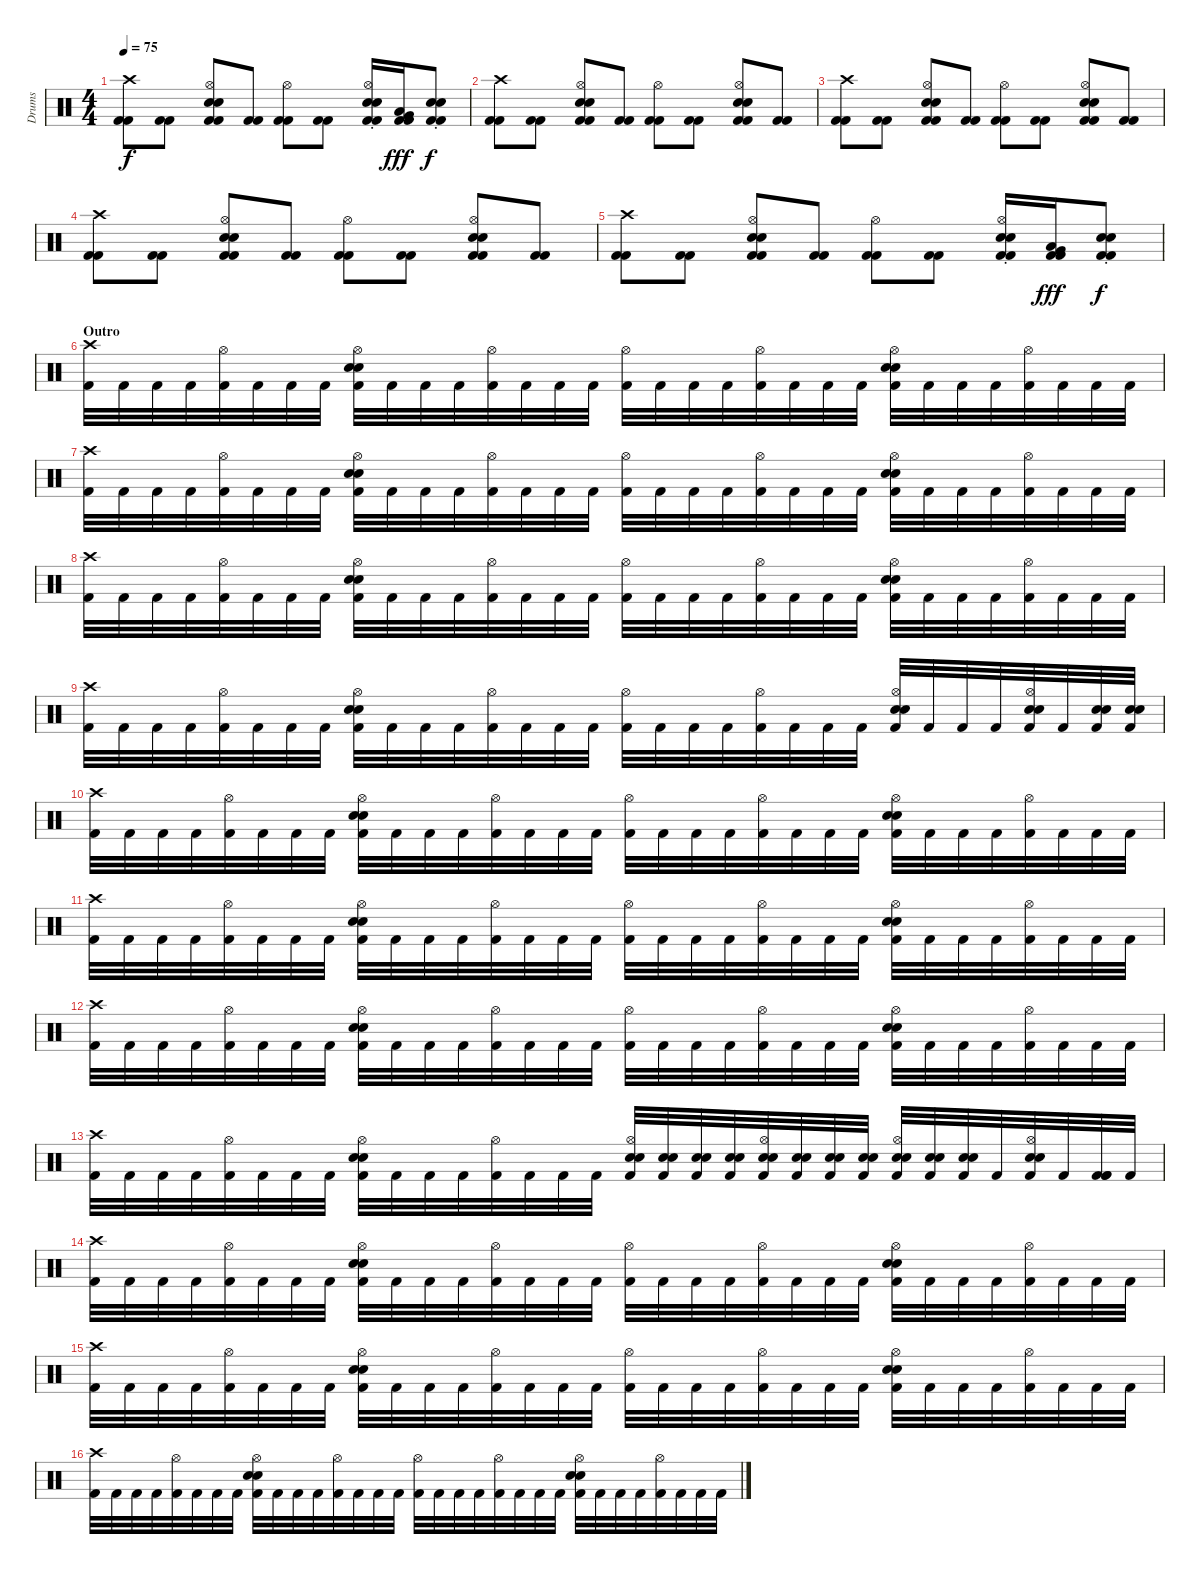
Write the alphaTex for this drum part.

\track ("Drums" "Drums") {instrument percussion}
\staff {score}
\articulation defaults
\ts (4 4)
\tempo 75
\clef neutral
\ks c
("Crash high (hit)" "Kick (hit) 2" "Kick (hit) 2").8{dy f} ("Kick (hit) 2" "Kick (hit) 2").8 ("Hi-Hat (open)" "Snare (hit) 2" "Snare (hit) 2" "Kick (hit) 2" "Kick (hit) 2").8 ("Kick (hit) 2" "Kick (hit) 2").8 ("Hi-Hat (open)" "Kick (hit) 2" "Kick (hit) 2").8 ("Kick (hit) 2" "Kick (hit) 2").8 ("Hi-Hat (open)"{st} "Snare (hit) 2"{st} "Snare (hit) 2"{st} "Kick (hit) 2"{st} "Kick (hit) 2"{st}).16 ("Low Floor Tom (hit)" "Very Low Tom (hit)" "Kick (hit) 2" "Kick (hit) 2").16{dy fff} ("Snare (hit) 2"{st} "Snare (hit) 2"{st} "Kick (hit) 2"{st} "Kick (hit) 2"{st}).8{dy f} |
("Crash high (hit)" "Kick (hit) 2" "Kick (hit) 2").8 ("Kick (hit) 2" "Kick (hit) 2").8 ("Hi-Hat (open)" "Snare (hit) 2" "Snare (hit) 2" "Kick (hit) 2" "Kick (hit) 2").8 ("Kick (hit) 2" "Kick (hit) 2").8 ("Hi-Hat (open)" "Kick (hit) 2" "Kick (hit) 2").8 ("Kick (hit) 2" "Kick (hit) 2").8 ("Hi-Hat (open)" "Snare (hit) 2" "Snare (hit) 2" "Kick (hit) 2" "Kick (hit) 2").8 ("Kick (hit) 2" "Kick (hit) 2").8 |
("Crash high (hit)" "Kick (hit) 2" "Kick (hit) 2").8 ("Kick (hit) 2" "Kick (hit) 2").8 ("Hi-Hat (open)" "Snare (hit) 2" "Snare (hit) 2" "Kick (hit) 2" "Kick (hit) 2").8 ("Kick (hit) 2" "Kick (hit) 2").8 ("Hi-Hat (open)" "Kick (hit) 2" "Kick (hit) 2").8 ("Kick (hit) 2" "Kick (hit) 2").8 ("Hi-Hat (open)" "Snare (hit) 2" "Snare (hit) 2" "Kick (hit) 2" "Kick (hit) 2").8 ("Kick (hit) 2" "Kick (hit) 2").8 |
("Crash high (hit)" "Kick (hit) 2" "Kick (hit) 2").8 ("Kick (hit) 2" "Kick (hit) 2").8 ("Hi-Hat (open)" "Snare (hit) 2" "Snare (hit) 2" "Kick (hit) 2" "Kick (hit) 2").8 ("Kick (hit) 2" "Kick (hit) 2").8 ("Hi-Hat (open)" "Kick (hit) 2" "Kick (hit) 2").8 ("Kick (hit) 2" "Kick (hit) 2").8 ("Hi-Hat (open)" "Snare (hit) 2" "Snare (hit) 2" "Kick (hit) 2" "Kick (hit) 2").8 ("Kick (hit) 2" "Kick (hit) 2").8 |
("Crash high (hit)" "Kick (hit) 2" "Kick (hit) 2").8 ("Kick (hit) 2" "Kick (hit) 2").8 ("Hi-Hat (open)" "Snare (hit) 2" "Snare (hit) 2" "Kick (hit) 2" "Kick (hit) 2").8 ("Kick (hit) 2" "Kick (hit) 2").8 ("Hi-Hat (open)" "Kick (hit) 2" "Kick (hit) 2").8 ("Kick (hit) 2" "Kick (hit) 2").8 ("Hi-Hat (open)"{st} "Snare (hit) 2"{st} "Snare (hit) 2"{st} "Kick (hit) 2"{st} "Kick (hit) 2"{st}).16 ("Low Floor Tom (hit)" "Very Low Tom (hit)" "Kick (hit) 2" "Kick (hit) 2").16{dy fff} ("Snare (hit) 2"{st} "Snare (hit) 2"{st} "Kick (hit) 2"{st} "Kick (hit) 2"{st}).8{dy f} |
\section ("" "Outro")
("Crash high (hit)" "Kick (hit) 2").32 "Kick (hit) 2".32 "Kick (hit) 2".32 "Kick (hit) 2".32 ("Hi-Hat (open)" "Kick (hit) 2").32 "Kick (hit) 2".32 "Kick (hit) 2".32 "Kick (hit) 2".32 ("Hi-Hat (open)" "Snare (hit) 2" "Snare (hit) 2" "Kick (hit) 2").32 "Kick (hit) 2".32 "Kick (hit) 2".32 "Kick (hit) 2".32 ("Hi-Hat (open)" "Kick (hit) 2").32 "Kick (hit) 2".32 "Kick (hit) 2".32 "Kick (hit) 2".32 ("Hi-Hat (open)" "Kick (hit) 2").32 "Kick (hit) 2".32 "Kick (hit) 2".32 "Kick (hit) 2".32 ("Hi-Hat (open)" "Kick (hit) 2").32 "Kick (hit) 2".32 "Kick (hit) 2".32 "Kick (hit) 2".32 ("Hi-Hat (open)" "Snare (hit) 2" "Snare (hit) 2" "Kick (hit) 2").32 "Kick (hit) 2".32 "Kick (hit) 2".32 "Kick (hit) 2".32 ("Hi-Hat (open)" "Kick (hit) 2").32 "Kick (hit) 2".32 "Kick (hit) 2".32 "Kick (hit) 2".32 |
("Crash high (hit)" "Kick (hit) 2").32 "Kick (hit) 2".32 "Kick (hit) 2".32 "Kick (hit) 2".32 ("Hi-Hat (open)" "Kick (hit) 2").32 "Kick (hit) 2".32 "Kick (hit) 2".32 "Kick (hit) 2".32 ("Hi-Hat (open)" "Snare (hit) 2" "Snare (hit) 2" "Kick (hit) 2").32 "Kick (hit) 2".32 "Kick (hit) 2".32 "Kick (hit) 2".32 ("Hi-Hat (open)" "Kick (hit) 2").32 "Kick (hit) 2".32 "Kick (hit) 2".32 "Kick (hit) 2".32 ("Hi-Hat (open)" "Kick (hit) 2").32 "Kick (hit) 2".32 "Kick (hit) 2".32 "Kick (hit) 2".32 ("Hi-Hat (open)" "Kick (hit) 2").32 "Kick (hit) 2".32 "Kick (hit) 2".32 "Kick (hit) 2".32 ("Hi-Hat (open)" "Snare (hit) 2" "Snare (hit) 2" "Kick (hit) 2").32 "Kick (hit) 2".32 "Kick (hit) 2".32 "Kick (hit) 2".32 ("Hi-Hat (open)" "Kick (hit) 2").32 "Kick (hit) 2".32 "Kick (hit) 2".32 "Kick (hit) 2".32 |
("Crash high (hit)" "Kick (hit) 2").32 "Kick (hit) 2".32 "Kick (hit) 2".32 "Kick (hit) 2".32 ("Hi-Hat (open)" "Kick (hit) 2").32 "Kick (hit) 2".32 "Kick (hit) 2".32 "Kick (hit) 2".32 ("Hi-Hat (open)" "Snare (hit) 2" "Snare (hit) 2" "Kick (hit) 2").32 "Kick (hit) 2".32 "Kick (hit) 2".32 "Kick (hit) 2".32 ("Hi-Hat (open)" "Kick (hit) 2").32 "Kick (hit) 2".32 "Kick (hit) 2".32 "Kick (hit) 2".32 ("Hi-Hat (open)" "Kick (hit) 2").32 "Kick (hit) 2".32 "Kick (hit) 2".32 "Kick (hit) 2".32 ("Hi-Hat (open)" "Kick (hit) 2").32 "Kick (hit) 2".32 "Kick (hit) 2".32 "Kick (hit) 2".32 ("Hi-Hat (open)" "Snare (hit) 2" "Snare (hit) 2" "Kick (hit) 2").32 "Kick (hit) 2".32 "Kick (hit) 2".32 "Kick (hit) 2".32 ("Hi-Hat (open)" "Kick (hit) 2").32 "Kick (hit) 2".32 "Kick (hit) 2".32 "Kick (hit) 2".32 |
("Crash high (hit)" "Kick (hit) 2").32 "Kick (hit) 2".32 "Kick (hit) 2".32 "Kick (hit) 2".32 ("Hi-Hat (open)" "Kick (hit) 2").32 "Kick (hit) 2".32 "Kick (hit) 2".32 "Kick (hit) 2".32 ("Hi-Hat (open)" "Snare (hit) 2" "Snare (hit) 2" "Kick (hit) 2").32 "Kick (hit) 2".32 "Kick (hit) 2".32 "Kick (hit) 2".32 ("Hi-Hat (open)" "Kick (hit) 2").32 "Kick (hit) 2".32 "Kick (hit) 2".32 "Kick (hit) 2".32 ("Hi-Hat (open)" "Kick (hit) 2").32 "Kick (hit) 2".32 "Kick (hit) 2".32 "Kick (hit) 2".32 ("Hi-Hat (open)" "Kick (hit) 2").32 "Kick (hit) 2".32 "Kick (hit) 2".32 "Kick (hit) 2".32 ("Hi-Hat (open)" "Snare (hit) 2" "Snare (hit) 2" "Kick (hit) 2").32 "Kick (hit) 2".32 "Kick (hit) 2".32 "Kick (hit) 2".32 ("Hi-Hat (open)" "Snare (hit) 2" "Snare (hit) 2" "Kick (hit) 2").32 "Kick (hit) 2".32 ("Snare (hit) 2" "Snare (hit) 2" "Kick (hit) 2").32 ("Snare (hit) 2" "Snare (hit) 2" "Kick (hit) 2").32 |
("Crash high (hit)" "Kick (hit) 2").32 "Kick (hit) 2".32 "Kick (hit) 2".32 "Kick (hit) 2".32 ("Hi-Hat (open)" "Kick (hit) 2").32 "Kick (hit) 2".32 "Kick (hit) 2".32 "Kick (hit) 2".32 ("Hi-Hat (open)" "Snare (hit) 2" "Snare (hit) 2" "Kick (hit) 2").32 "Kick (hit) 2".32 "Kick (hit) 2".32 "Kick (hit) 2".32 ("Hi-Hat (open)" "Kick (hit) 2").32 "Kick (hit) 2".32 "Kick (hit) 2".32 "Kick (hit) 2".32 ("Hi-Hat (open)" "Kick (hit) 2").32 "Kick (hit) 2".32 "Kick (hit) 2".32 "Kick (hit) 2".32 ("Hi-Hat (open)" "Kick (hit) 2").32 "Kick (hit) 2".32 "Kick (hit) 2".32 "Kick (hit) 2".32 ("Hi-Hat (open)" "Snare (hit) 2" "Snare (hit) 2" "Kick (hit) 2").32 "Kick (hit) 2".32 "Kick (hit) 2".32 "Kick (hit) 2".32 ("Hi-Hat (open)" "Kick (hit) 2").32 "Kick (hit) 2".32 "Kick (hit) 2".32 "Kick (hit) 2".32 |
("Crash high (hit)" "Kick (hit) 2").32 "Kick (hit) 2".32 "Kick (hit) 2".32 "Kick (hit) 2".32 ("Hi-Hat (open)" "Kick (hit) 2").32 "Kick (hit) 2".32 "Kick (hit) 2".32 "Kick (hit) 2".32 ("Hi-Hat (open)" "Snare (hit) 2" "Snare (hit) 2" "Kick (hit) 2").32 "Kick (hit) 2".32 "Kick (hit) 2".32 "Kick (hit) 2".32 ("Hi-Hat (open)" "Kick (hit) 2").32 "Kick (hit) 2".32 "Kick (hit) 2".32 "Kick (hit) 2".32 ("Hi-Hat (open)" "Kick (hit) 2").32 "Kick (hit) 2".32 "Kick (hit) 2".32 "Kick (hit) 2".32 ("Hi-Hat (open)" "Kick (hit) 2").32 "Kick (hit) 2".32 "Kick (hit) 2".32 "Kick (hit) 2".32 ("Hi-Hat (open)" "Snare (hit) 2" "Snare (hit) 2" "Kick (hit) 2").32 "Kick (hit) 2".32 "Kick (hit) 2".32 "Kick (hit) 2".32 ("Hi-Hat (open)" "Kick (hit) 2").32 "Kick (hit) 2".32 "Kick (hit) 2".32 "Kick (hit) 2".32 |
("Crash high (hit)" "Kick (hit) 2").32 "Kick (hit) 2".32 "Kick (hit) 2".32 "Kick (hit) 2".32 ("Hi-Hat (open)" "Kick (hit) 2").32 "Kick (hit) 2".32 "Kick (hit) 2".32 "Kick (hit) 2".32 ("Hi-Hat (open)" "Snare (hit) 2" "Snare (hit) 2" "Kick (hit) 2").32 "Kick (hit) 2".32 "Kick (hit) 2".32 "Kick (hit) 2".32 ("Hi-Hat (open)" "Kick (hit) 2").32 "Kick (hit) 2".32 "Kick (hit) 2".32 "Kick (hit) 2".32 ("Hi-Hat (open)" "Kick (hit) 2").32 "Kick (hit) 2".32 "Kick (hit) 2".32 "Kick (hit) 2".32 ("Hi-Hat (open)" "Kick (hit) 2").32 "Kick (hit) 2".32 "Kick (hit) 2".32 "Kick (hit) 2".32 ("Hi-Hat (open)" "Snare (hit) 2" "Snare (hit) 2" "Kick (hit) 2").32 "Kick (hit) 2".32 "Kick (hit) 2".32 "Kick (hit) 2".32 ("Hi-Hat (open)" "Kick (hit) 2").32 "Kick (hit) 2".32 "Kick (hit) 2".32 "Kick (hit) 2".32 |
("Crash high (hit)" "Kick (hit) 2").32 "Kick (hit) 2".32 "Kick (hit) 2".32 "Kick (hit) 2".32 ("Hi-Hat (open)" "Kick (hit) 2").32 "Kick (hit) 2".32 "Kick (hit) 2".32 "Kick (hit) 2".32 ("Hi-Hat (open)" "Snare (hit) 2" "Snare (hit) 2" "Kick (hit) 2").32 "Kick (hit) 2".32 "Kick (hit) 2".32 "Kick (hit) 2".32 ("Hi-Hat (open)" "Kick (hit) 2").32 "Kick (hit) 2".32 "Kick (hit) 2".32 "Kick (hit) 2".32 ("Hi-Hat (open)" "Snare (hit) 2" "Snare (hit) 2" "Kick (hit) 2").32 ("Snare (hit) 2" "Snare (hit) 2" "Kick (hit) 2").32 ("Snare (hit) 2" "Snare (hit) 2" "Kick (hit) 2").32 ("Snare (hit) 2" "Snare (hit) 2" "Kick (hit) 2").32 ("Hi-Hat (open)" "Snare (hit) 2" "Snare (hit) 2" "Kick (hit) 2").32 ("Snare (hit) 2" "Snare (hit) 2" "Kick (hit) 2").32 ("Snare (hit) 2" "Snare (hit) 2" "Kick (hit) 2").32 ("Snare (hit) 2" "Snare (hit) 2" "Kick (hit) 2").32 ("Hi-Hat (open)" "Snare (hit) 2" "Snare (hit) 2" "Kick (hit) 2").32 ("Snare (hit) 2" "Snare (hit) 2" "Kick (hit) 2").32 ("Snare (hit) 2" "Snare (hit) 2" "Kick (hit) 2").32 "Kick (hit) 2".32 ("Hi-Hat (open)" "Snare (hit) 2" "Snare (hit) 2" "Kick (hit) 2").32 "Kick (hit) 2".32 ("Kick (hit) 2" "Kick (hit) 2" "Kick (hit) 2").32 "Kick (hit) 2".32 |
("Crash high (hit)" "Kick (hit) 2").32{volume 6} "Kick (hit) 2".32 "Kick (hit) 2".32 "Kick (hit) 2".32 ("Hi-Hat (open)" "Kick (hit) 2").32 "Kick (hit) 2".32 "Kick (hit) 2".32 "Kick (hit) 2".32 ("Hi-Hat (open)" "Snare (hit) 2" "Snare (hit) 2" "Kick (hit) 2").32 "Kick (hit) 2".32 "Kick (hit) 2".32 "Kick (hit) 2".32 ("Hi-Hat (open)" "Kick (hit) 2").32 "Kick (hit) 2".32 "Kick (hit) 2".32 "Kick (hit) 2".32 ("Hi-Hat (open)" "Kick (hit) 2").32 "Kick (hit) 2".32 "Kick (hit) 2".32 "Kick (hit) 2".32 ("Hi-Hat (open)" "Kick (hit) 2").32 "Kick (hit) 2".32 "Kick (hit) 2".32 "Kick (hit) 2".32 ("Hi-Hat (open)" "Snare (hit) 2" "Snare (hit) 2" "Kick (hit) 2").32 "Kick (hit) 2".32 "Kick (hit) 2".32 "Kick (hit) 2".32 ("Hi-Hat (open)" "Kick (hit) 2").32 "Kick (hit) 2".32 "Kick (hit) 2".32 "Kick (hit) 2".32 |
("Crash high (hit)" "Kick (hit) 2").32 "Kick (hit) 2".32 "Kick (hit) 2".32 "Kick (hit) 2".32 ("Hi-Hat (open)" "Kick (hit) 2").32 "Kick (hit) 2".32 "Kick (hit) 2".32 "Kick (hit) 2".32 ("Hi-Hat (open)" "Snare (hit) 2" "Snare (hit) 2" "Kick (hit) 2").32 "Kick (hit) 2".32 "Kick (hit) 2".32 "Kick (hit) 2".32 ("Hi-Hat (open)" "Kick (hit) 2").32 "Kick (hit) 2".32 "Kick (hit) 2".32 "Kick (hit) 2".32 ("Hi-Hat (open)" "Kick (hit) 2").32 "Kick (hit) 2".32 "Kick (hit) 2".32 "Kick (hit) 2".32 ("Hi-Hat (open)" "Kick (hit) 2").32 "Kick (hit) 2".32 "Kick (hit) 2".32 "Kick (hit) 2".32 ("Hi-Hat (open)" "Snare (hit) 2" "Snare (hit) 2" "Kick (hit) 2").32 "Kick (hit) 2".32 "Kick (hit) 2".32 "Kick (hit) 2".32 ("Hi-Hat (open)" "Kick (hit) 2").32 "Kick (hit) 2".32 "Kick (hit) 2".32 "Kick (hit) 2".32 |
("Crash high (hit)" "Kick (hit) 2").32 "Kick (hit) 2".32 "Kick (hit) 2".32 "Kick (hit) 2".32 ("Hi-Hat (open)" "Kick (hit) 2").32 "Kick (hit) 2".32 "Kick (hit) 2".32 "Kick (hit) 2".32 ("Hi-Hat (open)" "Snare (hit) 2" "Snare (hit) 2" "Kick (hit) 2").32 "Kick (hit) 2".32 "Kick (hit) 2".32 "Kick (hit) 2".32 ("Hi-Hat (open)" "Kick (hit) 2").32 "Kick (hit) 2".32 "Kick (hit) 2".32 "Kick (hit) 2".32 ("Hi-Hat (open)" "Kick (hit) 2").32 "Kick (hit) 2".32 "Kick (hit) 2".32 "Kick (hit) 2".32 ("Hi-Hat (open)" "Kick (hit) 2").32 "Kick (hit) 2".32 "Kick (hit) 2".32 "Kick (hit) 2".32 ("Hi-Hat (open)" "Snare (hit) 2" "Snare (hit) 2" "Kick (hit) 2").32 "Kick (hit) 2".32 "Kick (hit) 2".32 "Kick (hit) 2".32 ("Hi-Hat (open)" "Kick (hit) 2").32 "Kick (hit) 2".32 "Kick (hit) 2".32 "Kick (hit) 2".32
